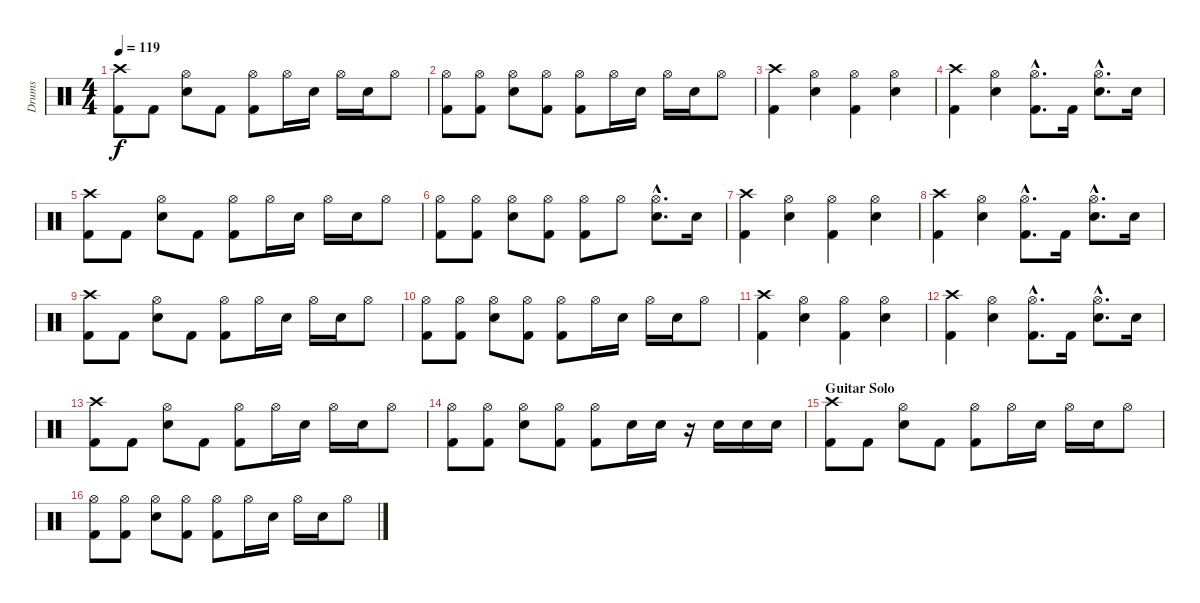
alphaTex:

\track ("Drums" "Drums") {instrument percussion}
\staff {score}
\articulation defaults
\ts (4 4)
\tempo 119
\clef neutral
\ks c
("Crash high (hit)" "Kick (hit) 2").8{dy f} "Kick (hit) 2".8 ("Hi-Hat (open)" "Electric Snare (hit)").8 "Kick (hit) 2".8 ("Hi-Hat (open)" "Kick (hit) 2").8 "Hi-Hat (open)".16 "Electric Snare (hit)".16 "Hi-Hat (open)".16 "Electric Snare (hit)".16 "Hi-Hat (open)".8 |
("Hi-Hat (open)" "Kick (hit) 2").8 ("Hi-Hat (open)" "Kick (hit) 2").8 ("Hi-Hat (open)" "Electric Snare (hit)").8 ("Hi-Hat (open)" "Kick (hit) 2").8 ("Hi-Hat (open)" "Kick (hit) 2").8 "Hi-Hat (open)".16 "Electric Snare (hit)".16 "Hi-Hat (open)".16 "Electric Snare (hit)".16 "Hi-Hat (open)".8 |
("Crash high (hit)" "Kick (hit) 2").4 ("Hi-Hat (open)" "Electric Snare (hit)").4 ("Hi-Hat (open)" "Kick (hit) 2").4 ("Hi-Hat (open)" "Electric Snare (hit)").4 |
("Crash high (hit)" "Kick (hit) 2").4 ("Hi-Hat (open)" "Electric Snare (hit)").4 ("Hi-Hat (open)"{hac} "Kick (hit) 2"{hac}).8{d} "Kick (hit) 2".16 ("Hi-Hat (open)"{hac} "Electric Snare (hit)"{hac}).8{d} "Electric Snare (hit)".16 |
("Crash high (hit)" "Kick (hit) 2").8 "Kick (hit) 2".8 ("Hi-Hat (open)" "Electric Snare (hit)").8 "Kick (hit) 2".8 ("Hi-Hat (open)" "Kick (hit) 2").8 "Hi-Hat (open)".16 "Electric Snare (hit)".16 "Hi-Hat (open)".16 "Electric Snare (hit)".16 "Hi-Hat (open)".8 |
("Hi-Hat (open)" "Kick (hit) 2").8 ("Hi-Hat (open)" "Kick (hit) 2").8 ("Hi-Hat (open)" "Electric Snare (hit)").8 ("Hi-Hat (open)" "Kick (hit) 2").8 ("Hi-Hat (open)" "Kick (hit) 2").8 "Hi-Hat (open)".8 ("Hi-Hat (open)"{hac} "Electric Snare (hit)"{hac}).8{d} "Electric Snare (hit)".16 |
("Crash high (hit)" "Kick (hit) 2").4 ("Hi-Hat (open)" "Electric Snare (hit)").4 ("Hi-Hat (open)" "Kick (hit) 2").4 ("Hi-Hat (open)" "Electric Snare (hit)").4 |
("Crash high (hit)" "Kick (hit) 2").4 ("Hi-Hat (open)" "Electric Snare (hit)").4 ("Hi-Hat (open)"{hac} "Kick (hit) 2"{hac}).8{d} "Kick (hit) 2".16 ("Hi-Hat (open)"{hac} "Electric Snare (hit)"{hac}).8{d} "Electric Snare (hit)".16 |
("Crash high (hit)" "Kick (hit) 2").8 "Kick (hit) 2".8 ("Hi-Hat (open)" "Electric Snare (hit)").8 "Kick (hit) 2".8 ("Hi-Hat (open)" "Kick (hit) 2").8 "Hi-Hat (open)".16 "Electric Snare (hit)".16 "Hi-Hat (open)".16 "Electric Snare (hit)".16 "Hi-Hat (open)".8 |
("Hi-Hat (open)" "Kick (hit) 2").8 ("Hi-Hat (open)" "Kick (hit) 2").8 ("Hi-Hat (open)" "Electric Snare (hit)").8 ("Hi-Hat (open)" "Kick (hit) 2").8 ("Hi-Hat (open)" "Kick (hit) 2").8 "Hi-Hat (open)".16 "Electric Snare (hit)".16 "Hi-Hat (open)".16 "Electric Snare (hit)".16 "Hi-Hat (open)".8 |
("Crash high (hit)" "Kick (hit) 2").4 ("Hi-Hat (open)" "Electric Snare (hit)").4 ("Hi-Hat (open)" "Kick (hit) 2").4 ("Hi-Hat (open)" "Electric Snare (hit)").4 |
("Crash high (hit)" "Kick (hit) 2").4 ("Hi-Hat (open)" "Electric Snare (hit)").4 ("Hi-Hat (open)"{hac} "Kick (hit) 2"{hac}).8{d} "Kick (hit) 2".16 ("Hi-Hat (open)"{hac} "Electric Snare (hit)"{hac}).8{d} "Electric Snare (hit)".16 |
("Crash high (hit)" "Kick (hit) 2").8 "Kick (hit) 2".8 ("Hi-Hat (open)" "Electric Snare (hit)").8 "Kick (hit) 2".8 ("Hi-Hat (open)" "Kick (hit) 2").8 "Hi-Hat (open)".16 "Electric Snare (hit)".16 "Hi-Hat (open)".16 "Electric Snare (hit)".16 "Hi-Hat (open)".8 |
("Hi-Hat (open)" "Kick (hit) 2").8 ("Hi-Hat (open)" "Kick (hit) 2").8 ("Hi-Hat (open)" "Electric Snare (hit)").8 ("Hi-Hat (open)" "Kick (hit) 2").8 ("Hi-Hat (open)" "Kick (hit) 2").8 "Electric Snare (hit)".16 "Electric Snare (hit)".16 r.16 "Electric Snare (hit)".16 "Electric Snare (hit)".16 "Electric Snare (hit)".16 |
\section ("" "Guitar Solo")
("Crash high (hit)" "Kick (hit) 2").8 "Kick (hit) 2".8 ("Hi-Hat (open)" "Electric Snare (hit)").8 "Kick (hit) 2".8 ("Hi-Hat (open)" "Kick (hit) 2").8 "Hi-Hat (open)".16 "Electric Snare (hit)".16 "Hi-Hat (open)".16 "Electric Snare (hit)".16 "Hi-Hat (open)".8 |
("Hi-Hat (open)" "Kick (hit) 2").8 ("Hi-Hat (open)" "Kick (hit) 2").8 ("Hi-Hat (open)" "Electric Snare (hit)").8 ("Hi-Hat (open)" "Kick (hit) 2").8 ("Hi-Hat (open)" "Kick (hit) 2").8 "Hi-Hat (open)".16 "Electric Snare (hit)".16 "Hi-Hat (open)".16 "Electric Snare (hit)".16 "Hi-Hat (open)".8
